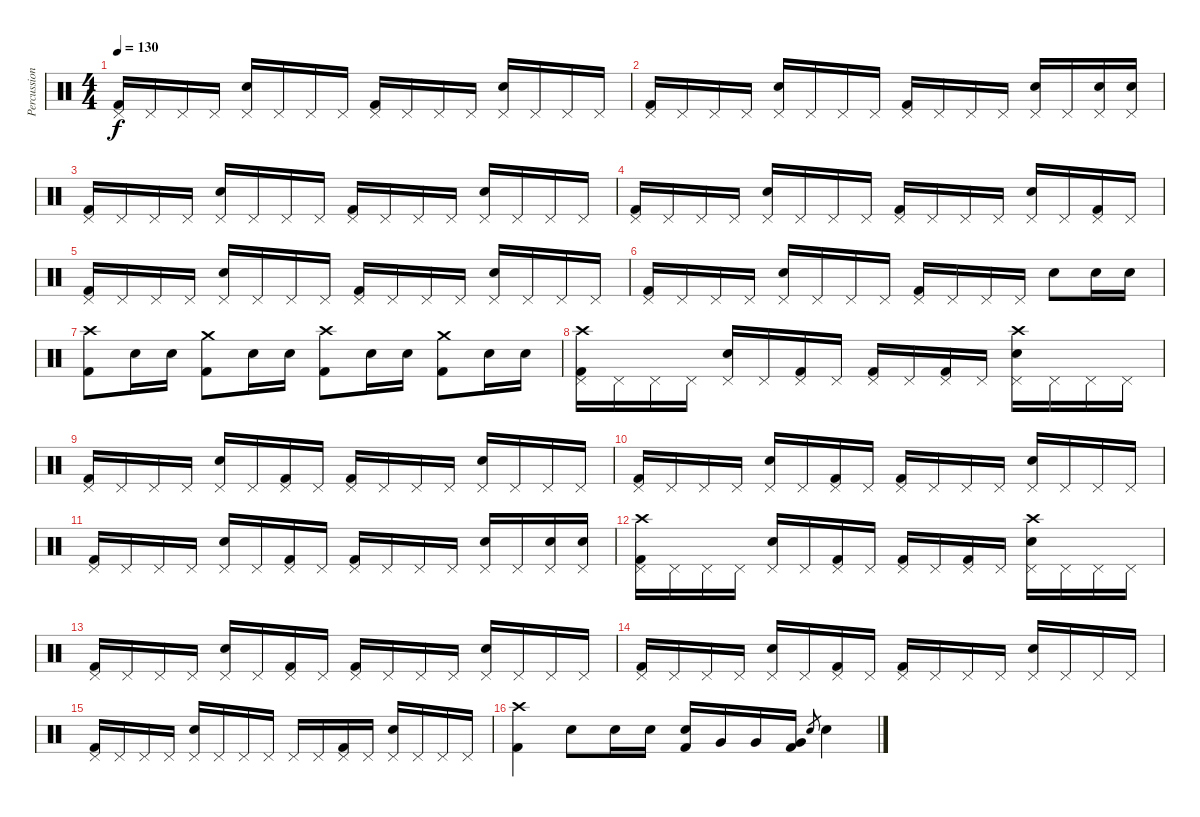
\track ("Percussion" "Percussion") {instrument percussion}
\staff {score}
\articulation defaults
\ts (4 4)
\tempo 130
\clef neutral
\ks c
("Pedal Hi-Hat (hit)" "Kick (hit) 2").16{dy f} "Pedal Hi-Hat (hit)".16 "Pedal Hi-Hat (hit)".16 "Pedal Hi-Hat (hit)".16 ("Pedal Hi-Hat (hit)" "Snare (hit) 2").16 "Pedal Hi-Hat (hit)".16 "Pedal Hi-Hat (hit)".16 "Pedal Hi-Hat (hit)".16 ("Pedal Hi-Hat (hit)" "Kick (hit) 2").16 "Pedal Hi-Hat (hit)".16 "Pedal Hi-Hat (hit)".16 "Pedal Hi-Hat (hit)".16 ("Pedal Hi-Hat (hit)" "Snare (hit) 2").16 "Pedal Hi-Hat (hit)".16 "Pedal Hi-Hat (hit)".16 "Pedal Hi-Hat (hit)".16 |
("Pedal Hi-Hat (hit)" "Kick (hit) 2").16 "Pedal Hi-Hat (hit)".16 "Pedal Hi-Hat (hit)".16 "Pedal Hi-Hat (hit)".16 ("Pedal Hi-Hat (hit)" "Snare (hit) 2").16 "Pedal Hi-Hat (hit)".16 "Pedal Hi-Hat (hit)".16 "Pedal Hi-Hat (hit)".16 ("Pedal Hi-Hat (hit)" "Kick (hit) 2").16 "Pedal Hi-Hat (hit)".16 "Pedal Hi-Hat (hit)".16 "Pedal Hi-Hat (hit)".16 ("Pedal Hi-Hat (hit)" "Snare (hit) 2").16 "Pedal Hi-Hat (hit)".16 ("Pedal Hi-Hat (hit)" "Snare (hit) 2").16 ("Pedal Hi-Hat (hit)" "Snare (hit) 2").16 |
("Pedal Hi-Hat (hit)" "Kick (hit) 2").16 "Pedal Hi-Hat (hit)".16 "Pedal Hi-Hat (hit)".16 "Pedal Hi-Hat (hit)".16 ("Pedal Hi-Hat (hit)" "Snare (hit) 2").16 "Pedal Hi-Hat (hit)".16 "Pedal Hi-Hat (hit)".16 "Pedal Hi-Hat (hit)".16 ("Pedal Hi-Hat (hit)" "Kick (hit) 2").16 "Pedal Hi-Hat (hit)".16 "Pedal Hi-Hat (hit)".16 "Pedal Hi-Hat (hit)".16 ("Pedal Hi-Hat (hit)" "Snare (hit) 2").16 "Pedal Hi-Hat (hit)".16 "Pedal Hi-Hat (hit)".16 "Pedal Hi-Hat (hit)".16 |
("Pedal Hi-Hat (hit)" "Kick (hit) 2").16 "Pedal Hi-Hat (hit)".16 "Pedal Hi-Hat (hit)".16 "Pedal Hi-Hat (hit)".16 ("Pedal Hi-Hat (hit)" "Snare (hit) 2").16 "Pedal Hi-Hat (hit)".16 "Pedal Hi-Hat (hit)".16 "Pedal Hi-Hat (hit)".16 ("Pedal Hi-Hat (hit)" "Kick (hit) 2").16 "Pedal Hi-Hat (hit)".16 "Pedal Hi-Hat (hit)".16 "Pedal Hi-Hat (hit)".16 ("Pedal Hi-Hat (hit)" "Snare (hit) 2").16 "Pedal Hi-Hat (hit)".16 ("Pedal Hi-Hat (hit)" "Kick (hit) 2").16 "Pedal Hi-Hat (hit)".16 |
("Pedal Hi-Hat (hit)" "Kick (hit) 2").16 "Pedal Hi-Hat (hit)".16 "Pedal Hi-Hat (hit)".16 "Pedal Hi-Hat (hit)".16 ("Pedal Hi-Hat (hit)" "Snare (hit) 2").16 "Pedal Hi-Hat (hit)".16 "Pedal Hi-Hat (hit)".16 "Pedal Hi-Hat (hit)".16 ("Pedal Hi-Hat (hit)" "Kick (hit) 2").16 "Pedal Hi-Hat (hit)".16 "Pedal Hi-Hat (hit)".16 "Pedal Hi-Hat (hit)".16 ("Pedal Hi-Hat (hit)" "Snare (hit) 2").16 "Pedal Hi-Hat (hit)".16 "Pedal Hi-Hat (hit)".16 "Pedal Hi-Hat (hit)".16 |
("Pedal Hi-Hat (hit)" "Kick (hit) 2").16 "Pedal Hi-Hat (hit)".16 "Pedal Hi-Hat (hit)".16 "Pedal Hi-Hat (hit)".16 ("Pedal Hi-Hat (hit)" "Snare (hit) 2").16 "Pedal Hi-Hat (hit)".16 "Pedal Hi-Hat (hit)".16 "Pedal Hi-Hat (hit)".16 ("Pedal Hi-Hat (hit)" "Kick (hit) 2").16 "Pedal Hi-Hat (hit)".16 "Pedal Hi-Hat (hit)".16 "Pedal Hi-Hat (hit)".16 "Snare (hit) 2".8 "Snare (hit) 2".16 "Snare (hit) 2".16 |
("Crash high (hit)" "Kick (hit) 2").8 "Snare (hit) 2".16 "Snare (hit) 2".16 ("Crash medium (hit)" "Kick (hit) 2").8 "Snare (hit) 2".16 "Snare (hit) 2".16 ("Crash high (hit)" "Kick (hit) 2").8 "Snare (hit) 2".16 "Snare (hit) 2".16 ("Crash medium (hit)" "Kick (hit) 2").8 "Snare (hit) 2".16 "Snare (hit) 2".16 |
("Pedal Hi-Hat (hit)" "Crash high (hit)" "Kick (hit) 2").16 "Pedal Hi-Hat (hit)".16 "Pedal Hi-Hat (hit)".16 "Pedal Hi-Hat (hit)".16 ("Pedal Hi-Hat (hit)" "Snare (hit) 2").16 "Pedal Hi-Hat (hit)".16 ("Pedal Hi-Hat (hit)" "Kick (hit) 2").16 "Pedal Hi-Hat (hit)".16 ("Pedal Hi-Hat (hit)" "Kick (hit) 2").16 "Pedal Hi-Hat (hit)".16 ("Pedal Hi-Hat (hit)" "Kick (hit) 2").16 "Pedal Hi-Hat (hit)".16 ("Pedal Hi-Hat (hit)" "Crash high (hit)" "Snare (hit) 2").16 "Pedal Hi-Hat (hit)".16 "Pedal Hi-Hat (hit)".16 "Pedal Hi-Hat (hit)".16 |
("Pedal Hi-Hat (hit)" "Kick (hit) 2").16 "Pedal Hi-Hat (hit)".16 "Pedal Hi-Hat (hit)".16 "Pedal Hi-Hat (hit)".16 ("Pedal Hi-Hat (hit)" "Snare (hit) 2").16 "Pedal Hi-Hat (hit)".16 ("Pedal Hi-Hat (hit)" "Kick (hit) 2").16 "Pedal Hi-Hat (hit)".16 ("Pedal Hi-Hat (hit)" "Kick (hit) 2").16 "Pedal Hi-Hat (hit)".16 "Pedal Hi-Hat (hit)".16 "Pedal Hi-Hat (hit)".16 ("Pedal Hi-Hat (hit)" "Snare (hit) 2").16 "Pedal Hi-Hat (hit)".16 "Pedal Hi-Hat (hit)".16 "Pedal Hi-Hat (hit)".16 |
("Pedal Hi-Hat (hit)" "Kick (hit) 2").16 "Pedal Hi-Hat (hit)".16 "Pedal Hi-Hat (hit)".16 "Pedal Hi-Hat (hit)".16 ("Pedal Hi-Hat (hit)" "Snare (hit) 2").16 "Pedal Hi-Hat (hit)".16 ("Pedal Hi-Hat (hit)" "Kick (hit) 2").16 "Pedal Hi-Hat (hit)".16 ("Pedal Hi-Hat (hit)" "Kick (hit) 2").16 "Pedal Hi-Hat (hit)".16 "Pedal Hi-Hat (hit)".16 "Pedal Hi-Hat (hit)".16 ("Pedal Hi-Hat (hit)" "Snare (hit) 2").16 "Pedal Hi-Hat (hit)".16 "Pedal Hi-Hat (hit)".16 "Pedal Hi-Hat (hit)".16 |
("Pedal Hi-Hat (hit)" "Kick (hit) 2").16 "Pedal Hi-Hat (hit)".16 "Pedal Hi-Hat (hit)".16 "Pedal Hi-Hat (hit)".16 ("Pedal Hi-Hat (hit)" "Snare (hit) 2").16 "Pedal Hi-Hat (hit)".16 ("Pedal Hi-Hat (hit)" "Kick (hit) 2").16 "Pedal Hi-Hat (hit)".16 ("Pedal Hi-Hat (hit)" "Kick (hit) 2").16 "Pedal Hi-Hat (hit)".16 "Pedal Hi-Hat (hit)".16 "Pedal Hi-Hat (hit)".16 ("Pedal Hi-Hat (hit)" "Snare (hit) 2").16 "Pedal Hi-Hat (hit)".16 ("Pedal Hi-Hat (hit)" "Snare (hit) 2").16 ("Pedal Hi-Hat (hit)" "Snare (hit) 2").16 |
("Pedal Hi-Hat (hit)" "Crash high (hit)" "Kick (hit) 2").16 "Pedal Hi-Hat (hit)".16 "Pedal Hi-Hat (hit)".16 "Pedal Hi-Hat (hit)".16 ("Pedal Hi-Hat (hit)" "Snare (hit) 2").16 "Pedal Hi-Hat (hit)".16 ("Pedal Hi-Hat (hit)" "Kick (hit) 2").16 "Pedal Hi-Hat (hit)".16 ("Pedal Hi-Hat (hit)" "Kick (hit) 2").16 "Pedal Hi-Hat (hit)".16 ("Pedal Hi-Hat (hit)" "Kick (hit) 2").16 "Pedal Hi-Hat (hit)".16 ("Pedal Hi-Hat (hit)" "Crash high (hit)" "Snare (hit) 2").16 "Pedal Hi-Hat (hit)".16 "Pedal Hi-Hat (hit)".16 "Pedal Hi-Hat (hit)".16 |
("Pedal Hi-Hat (hit)" "Kick (hit) 2").16 "Pedal Hi-Hat (hit)".16 "Pedal Hi-Hat (hit)".16 "Pedal Hi-Hat (hit)".16 ("Pedal Hi-Hat (hit)" "Snare (hit) 2").16 "Pedal Hi-Hat (hit)".16 ("Pedal Hi-Hat (hit)" "Kick (hit) 2").16 "Pedal Hi-Hat (hit)".16 ("Pedal Hi-Hat (hit)" "Kick (hit) 2").16 "Pedal Hi-Hat (hit)".16 "Pedal Hi-Hat (hit)".16 "Pedal Hi-Hat (hit)".16 ("Pedal Hi-Hat (hit)" "Snare (hit) 2").16 "Pedal Hi-Hat (hit)".16 "Pedal Hi-Hat (hit)".16 "Pedal Hi-Hat (hit)".16 |
("Pedal Hi-Hat (hit)" "Kick (hit) 2").16 "Pedal Hi-Hat (hit)".16 "Pedal Hi-Hat (hit)".16 "Pedal Hi-Hat (hit)".16 ("Pedal Hi-Hat (hit)" "Snare (hit) 2").16 "Pedal Hi-Hat (hit)".16 ("Pedal Hi-Hat (hit)" "Kick (hit) 2").16 "Pedal Hi-Hat (hit)".16 ("Pedal Hi-Hat (hit)" "Kick (hit) 2").16 "Pedal Hi-Hat (hit)".16 "Pedal Hi-Hat (hit)".16 "Pedal Hi-Hat (hit)".16 ("Pedal Hi-Hat (hit)" "Snare (hit) 2").16 "Pedal Hi-Hat (hit)".16 "Pedal Hi-Hat (hit)".16 "Pedal Hi-Hat (hit)".16 |
("Pedal Hi-Hat (hit)" "Kick (hit) 2").16 "Pedal Hi-Hat (hit)".16 "Pedal Hi-Hat (hit)".16 "Pedal Hi-Hat (hit)".16 ("Pedal Hi-Hat (hit)" "Snare (hit) 2").16 "Pedal Hi-Hat (hit)".16 "Pedal Hi-Hat (hit)".16 "Pedal Hi-Hat (hit)".16 "Pedal Hi-Hat (hit)".16 "Pedal Hi-Hat (hit)".16 ("Pedal Hi-Hat (hit)" "Kick (hit) 2").16 "Pedal Hi-Hat (hit)".16 ("Pedal Hi-Hat (hit)" "Snare (hit) 2").16 "Pedal Hi-Hat (hit)".16 "Pedal Hi-Hat (hit)".16 "Pedal Hi-Hat (hit)".16 |
("Crash high (hit)" "Kick (hit) 2").4 "Snare (hit) 2".8 "Snare (hit) 2".16 "Snare (hit) 2".16 ("Snare (hit) 2" "Kick (hit) 2").16 "Very Low Tom (hit)".16 "Very Low Tom (hit)".16 ("Very Low Tom (hit)" "Kick (hit) 2").16 "Snare (hit) 2".8{gr} "Snare (hit) 2".4
